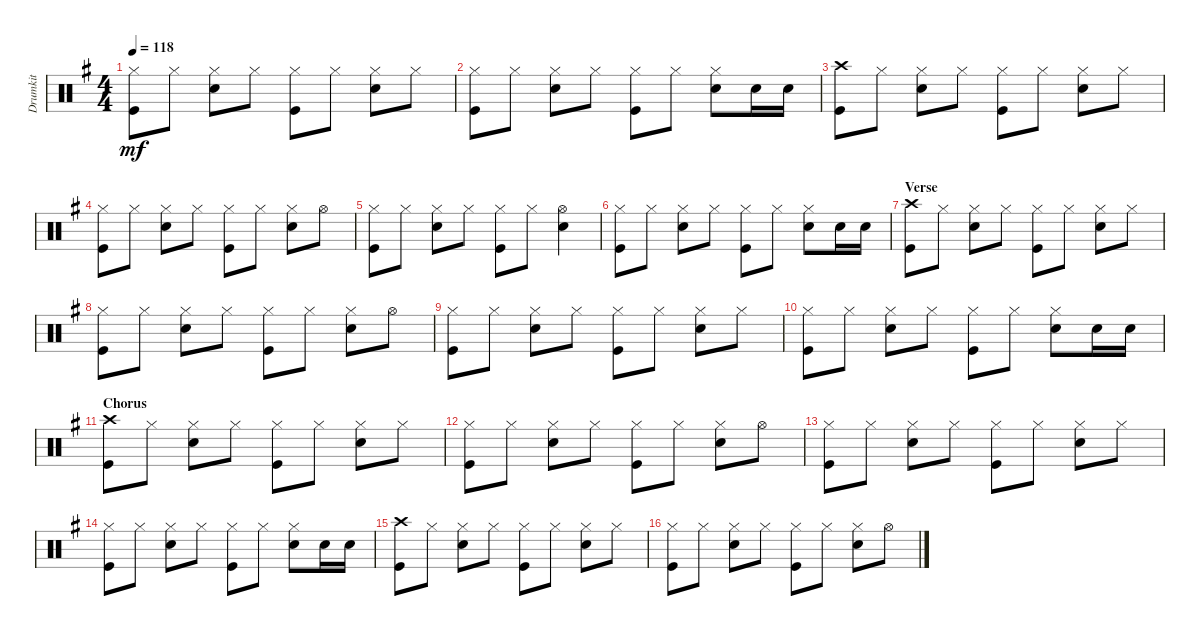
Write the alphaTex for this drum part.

\track ("Drumkit" "Drumkit") {instrument percussion}
\staff {score}
\articulation defaults
\ts (4 4)
\tempo 118
\clef neutral
\ks g
("Hi-Hat (closed)" "Kick (hit)").8{dy mf} "Hi-Hat (closed)".8 ("Hi-Hat (closed)" "Snare (hit) 2").8 "Hi-Hat (closed)".8 ("Hi-Hat (closed)" "Kick (hit)").8 "Hi-Hat (closed)".8 ("Hi-Hat (closed)" "Snare (hit) 2").8 "Hi-Hat (closed)".8 |
("Hi-Hat (closed)" "Kick (hit)").8 "Hi-Hat (closed)".8 ("Hi-Hat (closed)" "Snare (hit) 2").8 "Hi-Hat (closed)".8 ("Hi-Hat (closed)" "Kick (hit)").8 "Hi-Hat (closed)".8 ("Hi-Hat (closed)" "Snare (hit) 2").8 "Snare (hit) 2".16 "Snare (hit) 2".16 |
("Crash high (hit)" "Kick (hit)").8 "Hi-Hat (closed)".8 ("Hi-Hat (closed)" "Snare (hit) 2").8 "Hi-Hat (closed)".8 ("Hi-Hat (closed)" "Kick (hit)").8 "Hi-Hat (closed)".8 ("Hi-Hat (closed)" "Snare (hit) 2").8 "Hi-Hat (closed)".8 |
("Hi-Hat (closed)" "Kick (hit)").8 "Hi-Hat (closed)".8 ("Hi-Hat (closed)" "Snare (hit) 2").8 "Hi-Hat (closed)".8 ("Hi-Hat (closed)" "Kick (hit)").8 "Hi-Hat (closed)".8 ("Hi-Hat (closed)" "Snare (hit) 2").8 "Hi-Hat (open)".8 |
("Hi-Hat (closed)" "Kick (hit)").8 "Hi-Hat (closed)".8 ("Hi-Hat (closed)" "Snare (hit) 2").8 "Hi-Hat (closed)".8 ("Hi-Hat (closed)" "Kick (hit)").8 "Hi-Hat (closed)".8 ("Hi-Hat (open)" "Snare (hit) 2").4 |
("Hi-Hat (closed)" "Kick (hit)").8 "Hi-Hat (closed)".8 ("Hi-Hat (closed)" "Snare (hit) 2").8 "Hi-Hat (closed)".8 ("Hi-Hat (closed)" "Kick (hit)").8 "Hi-Hat (closed)".8 ("Hi-Hat (closed)" "Snare (hit) 2").8 "Snare (hit) 2".16 "Snare (hit) 2".16 |
\section ("" "Verse")
("Crash high (hit)" "Kick (hit)").8 "Hi-Hat (closed)".8 ("Hi-Hat (closed)" "Snare (hit) 2").8 "Hi-Hat (closed)".8 ("Hi-Hat (closed)" "Kick (hit)").8 "Hi-Hat (closed)".8 ("Hi-Hat (closed)" "Snare (hit) 2").8 "Hi-Hat (closed)".8 |
("Hi-Hat (closed)" "Kick (hit)").8 "Hi-Hat (closed)".8 ("Hi-Hat (closed)" "Snare (hit) 2").8 "Hi-Hat (closed)".8 ("Hi-Hat (closed)" "Kick (hit)").8 "Hi-Hat (closed)".8 ("Hi-Hat (closed)" "Snare (hit) 2").8 "Hi-Hat (open)".8 |
("Hi-Hat (closed)" "Kick (hit)").8 "Hi-Hat (closed)".8 ("Hi-Hat (closed)" "Snare (hit) 2").8 "Hi-Hat (closed)".8 ("Hi-Hat (closed)" "Kick (hit)").8 "Hi-Hat (closed)".8 ("Hi-Hat (closed)" "Snare (hit) 2").8 "Hi-Hat (closed)".8 |
("Hi-Hat (closed)" "Kick (hit)").8 "Hi-Hat (closed)".8 ("Hi-Hat (closed)" "Snare (hit) 2").8 "Hi-Hat (closed)".8 ("Hi-Hat (closed)" "Kick (hit)").8 "Hi-Hat (closed)".8 ("Hi-Hat (closed)" "Snare (hit) 2").8 "Snare (hit) 2".16 "Snare (hit) 2".16 |
\section ("" "Chorus")
("Crash high (hit)" "Kick (hit)").8 "Hi-Hat (closed)".8 ("Hi-Hat (closed)" "Snare (hit) 2").8 "Hi-Hat (closed)".8 ("Hi-Hat (closed)" "Kick (hit)").8 "Hi-Hat (closed)".8 ("Hi-Hat (closed)" "Snare (hit) 2").8 "Hi-Hat (closed)".8 |
("Hi-Hat (closed)" "Kick (hit)").8 "Hi-Hat (closed)".8 ("Hi-Hat (closed)" "Snare (hit) 2").8 "Hi-Hat (closed)".8 ("Hi-Hat (closed)" "Kick (hit)").8 "Hi-Hat (closed)".8 ("Hi-Hat (closed)" "Snare (hit) 2").8 "Hi-Hat (open)".8 |
("Hi-Hat (closed)" "Kick (hit)").8 "Hi-Hat (closed)".8 ("Hi-Hat (closed)" "Snare (hit) 2").8 "Hi-Hat (closed)".8 ("Hi-Hat (closed)" "Kick (hit)").8 "Hi-Hat (closed)".8 ("Hi-Hat (closed)" "Snare (hit) 2").8 "Hi-Hat (closed)".8 |
("Hi-Hat (closed)" "Kick (hit)").8 "Hi-Hat (closed)".8 ("Hi-Hat (closed)" "Snare (hit) 2").8 "Hi-Hat (closed)".8 ("Hi-Hat (closed)" "Kick (hit)").8 "Hi-Hat (closed)".8 ("Hi-Hat (closed)" "Snare (hit) 2").8 "Snare (hit) 2".16 "Snare (hit) 2".16 |
("Crash high (hit)" "Kick (hit)").8 "Hi-Hat (closed)".8 ("Hi-Hat (closed)" "Snare (hit) 2").8 "Hi-Hat (closed)".8 ("Hi-Hat (closed)" "Kick (hit)").8 "Hi-Hat (closed)".8 ("Hi-Hat (closed)" "Snare (hit) 2").8 "Hi-Hat (closed)".8 |
("Hi-Hat (closed)" "Kick (hit)").8 "Hi-Hat (closed)".8 ("Hi-Hat (closed)" "Snare (hit) 2").8 "Hi-Hat (closed)".8 ("Hi-Hat (closed)" "Kick (hit)").8 "Hi-Hat (closed)".8 ("Hi-Hat (closed)" "Snare (hit) 2").8 "Hi-Hat (open)".8
